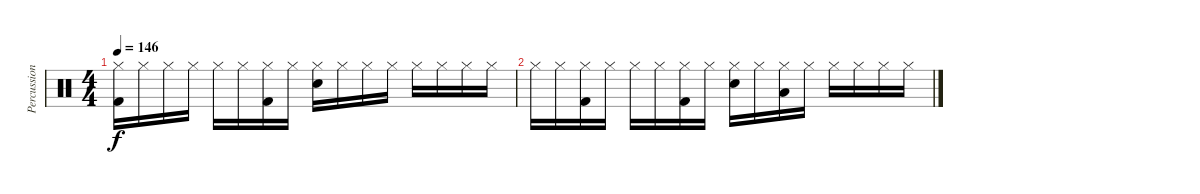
\track ("Percussion" "Percussion") {instrument percussion}
\staff {score}
\articulation defaults
\ts (4 4)
\tempo 146
\clef neutral
\ks c
("Hi-Hat (closed)" "Kick (hit) 2").16{dy f} "Hi-Hat (closed)".16 "Hi-Hat (closed)".16 "Hi-Hat (closed)".16 "Hi-Hat (closed)".16 "Hi-Hat (closed)".16 ("Hi-Hat (closed)" "Kick (hit) 2").16 "Hi-Hat (closed)".16 ("Hi-Hat (closed)" "Electric Snare (hit)").16 "Hi-Hat (closed)".16 "Hi-Hat (closed)".16 "Hi-Hat (closed)".16 "Hi-Hat (closed)".16 "Hi-Hat (closed)".16 "Hi-Hat (closed)".16 "Hi-Hat (closed)".16 |
"Hi-Hat (closed)".16 "Hi-Hat (closed)".16 ("Hi-Hat (closed)" "Kick (hit) 2").16 "Hi-Hat (closed)".16 "Hi-Hat (closed)".16 "Hi-Hat (closed)".16 ("Hi-Hat (closed)" "Kick (hit) 2").16 "Hi-Hat (closed)".16 ("Hi-Hat (closed)" "Electric Snare (hit)").16 "Hi-Hat (closed)".16 ("Hi-Hat (closed)" "Low Tom (hit)").16 "Hi-Hat (closed)".16 "Hi-Hat (closed)".16 "Hi-Hat (closed)".16 "Hi-Hat (closed)".16 "Hi-Hat (closed)".16
